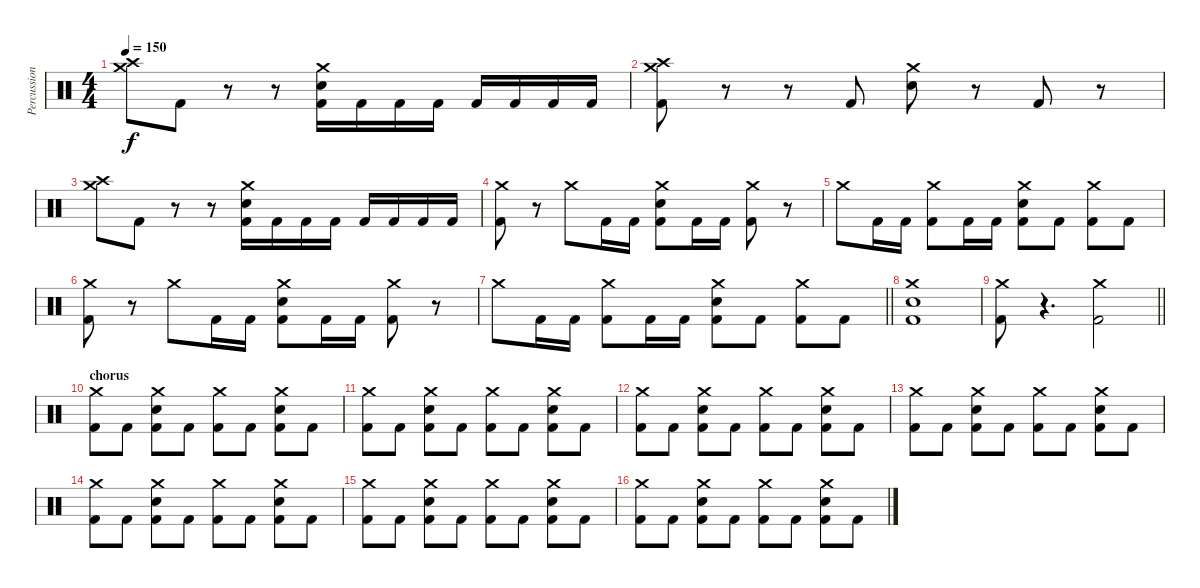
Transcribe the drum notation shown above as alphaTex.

\track ("Percussion" "Percussion") {instrument percussion}
\staff {score}
\articulation defaults
\ts (4 4)
\tempo 150
\clef neutral
\ks c
("Crash medium (hit)" "Crash high (hit)").8{dy f} "Kick (hit) 2".8 r.8 r.8 ("Crash medium (hit)" "Snare (hit) 2" "Kick (hit) 2").16 "Kick (hit) 2".16 "Kick (hit) 2".16 "Kick (hit) 2".16 "Kick (hit) 2".16 "Kick (hit) 2".16 "Kick (hit) 2".16 "Kick (hit) 2".16 |
("Crash medium (hit)" "Crash high (hit)" "Kick (hit) 2").8 r.8 r.8 "Kick (hit) 2".8 ("Crash medium (hit)" "Snare (hit) 2").8 r.8 "Kick (hit) 2".8 r.8 |
("Crash medium (hit)" "Crash high (hit)").8 "Kick (hit) 2".8 r.8 r.8 ("Crash medium (hit)" "Snare (hit) 2" "Kick (hit) 2").16 "Kick (hit) 2".16 "Kick (hit) 2".16 "Kick (hit) 2".16 "Kick (hit) 2".16 "Kick (hit) 2".16 "Kick (hit) 2".16 "Kick (hit) 2".16 |
("Crash medium (hit)" "Kick (hit) 2").8 r.8 "Crash medium (hit)".8 "Kick (hit) 2".16 "Kick (hit) 2".16 ("Crash medium (hit)" "Snare (hit) 2" "Kick (hit) 2").8 "Kick (hit) 2".16 "Kick (hit) 2".16 ("Crash medium (hit)" "Kick (hit) 2").8 r.8 |
"Crash medium (hit)".8 "Kick (hit) 2".16 "Kick (hit) 2".16 ("Crash medium (hit)" "Kick (hit) 2").8 "Kick (hit) 2".16 "Kick (hit) 2".16 ("Crash medium (hit)" "Snare (hit) 2" "Kick (hit) 2").8 "Kick (hit) 2".8 ("Crash medium (hit)" "Kick (hit) 2").8 "Kick (hit) 2".8 |
("Crash medium (hit)" "Kick (hit) 2").8 r.8 "Crash medium (hit)".8 "Kick (hit) 2".16 "Kick (hit) 2".16 ("Crash medium (hit)" "Snare (hit) 2" "Kick (hit) 2").8 "Kick (hit) 2".16 "Kick (hit) 2".16 ("Crash medium (hit)" "Kick (hit) 2").8 r.8 |
\barLineRight lightlight "Crash medium (hit)".8 "Kick (hit) 2".16 "Kick (hit) 2".16
("Crash medium (hit)" "Kick (hit) 2").8 "Kick (hit) 2".16 "Kick (hit) 2".16 ("Crash medium (hit)" "Snare (hit) 2" "Kick (hit) 2").8 "Kick (hit) 2".8 ("Crash medium (hit)" "Kick (hit) 2").8 "Kick (hit) 2".8 |
\section ("" "")
("Crash medium (hit)" "Snare (hit) 2" "Kick (hit) 2").1 |
\barLineRight lightlight
("Crash medium (hit)" "Kick (hit) 2").8 r.4{d} ("Crash medium (hit)" "Kick (hit) 2").2 |
\section ("" "chorus")
("Crash medium (hit)" "Kick (hit) 2").8 "Kick (hit) 2".8 ("Crash medium (hit)" "Snare (hit) 2" "Kick (hit) 2").8 "Kick (hit) 2".8 ("Crash medium (hit)" "Kick (hit) 2").8 "Kick (hit) 2".8 ("Crash medium (hit)" "Snare (hit) 2" "Kick (hit) 2").8 "Kick (hit) 2".8 |
("Crash medium (hit)" "Kick (hit) 2").8 "Kick (hit) 2".8 ("Crash medium (hit)" "Snare (hit) 2" "Kick (hit) 2").8 "Kick (hit) 2".8 ("Crash medium (hit)" "Kick (hit) 2").8 "Kick (hit) 2".8 ("Crash medium (hit)" "Snare (hit) 2" "Kick (hit) 2").8 "Kick (hit) 2".8 |
("Crash medium (hit)" "Kick (hit) 2").8 "Kick (hit) 2".8 ("Crash medium (hit)" "Snare (hit) 2" "Kick (hit) 2").8 "Kick (hit) 2".8 ("Crash medium (hit)" "Kick (hit) 2").8 "Kick (hit) 2".8 ("Crash medium (hit)" "Snare (hit) 2" "Kick (hit) 2").8 "Kick (hit) 2".8 |
("Crash medium (hit)" "Kick (hit) 2").8 "Kick (hit) 2".8 ("Crash medium (hit)" "Snare (hit) 2" "Kick (hit) 2").8 "Kick (hit) 2".8 ("Crash medium (hit)" "Kick (hit) 2").8 "Kick (hit) 2".8 ("Crash medium (hit)" "Snare (hit) 2" "Kick (hit) 2").8 "Kick (hit) 2".8 |
("Crash medium (hit)" "Kick (hit) 2").8 "Kick (hit) 2".8 ("Crash medium (hit)" "Snare (hit) 2" "Kick (hit) 2").8 "Kick (hit) 2".8 ("Crash medium (hit)" "Kick (hit) 2").8 "Kick (hit) 2".8 ("Crash medium (hit)" "Snare (hit) 2" "Kick (hit) 2").8 "Kick (hit) 2".8 |
("Crash medium (hit)" "Kick (hit) 2").8 "Kick (hit) 2".8 ("Crash medium (hit)" "Snare (hit) 2" "Kick (hit) 2").8 "Kick (hit) 2".8 ("Crash medium (hit)" "Kick (hit) 2").8 "Kick (hit) 2".8 ("Crash medium (hit)" "Snare (hit) 2" "Kick (hit) 2").8 "Kick (hit) 2".8 |
("Crash medium (hit)" "Kick (hit) 2").8 "Kick (hit) 2".8 ("Crash medium (hit)" "Snare (hit) 2" "Kick (hit) 2").8 "Kick (hit) 2".8 ("Crash medium (hit)" "Kick (hit) 2").8 "Kick (hit) 2".8 ("Crash medium (hit)" "Snare (hit) 2" "Kick (hit) 2").8 "Kick (hit) 2".8
